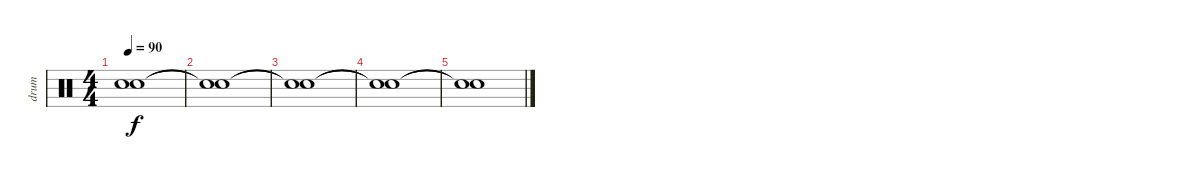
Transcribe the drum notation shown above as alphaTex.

\track ("drum" "drum") {instrument percussion}
\staff {score}
\articulation defaults
\ts (4 4)
\tempo 90
\clef neutral
\ks c
("Snare (hit)"{t} "Snare (hit)"{t}).1{dy f} |
("Snare (hit)"{t} "Snare (hit)"{t}).1 |
("Snare (hit)"{t} "Snare (hit)"{t}).1 |
("Snare (hit)"{t} "Snare (hit)"{t}).1 |
("Snare (hit)"{t} "Snare (hit)"{t}).1
